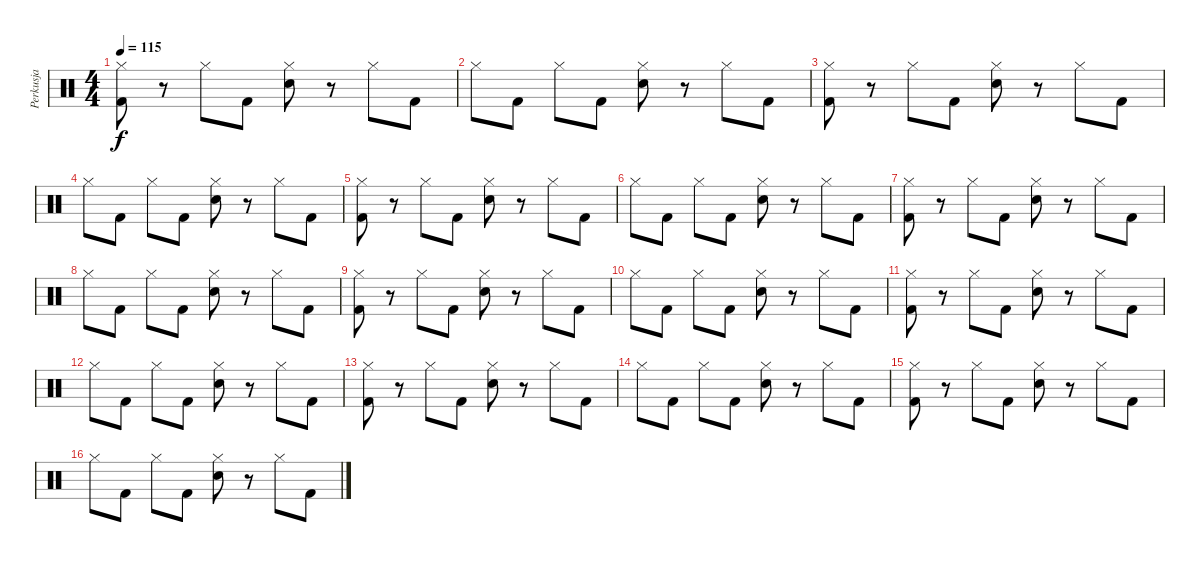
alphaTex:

\track ("Perkusja" "Perkusja") {instrument percussion}
\staff {score}
\articulation defaults
\ts (4 4)
\tempo 115
\clef neutral
\ks c
("Hi-Hat (closed)" "Kick (hit) 2").8{dy f} r.8 "Hi-Hat (closed)".8 "Kick (hit) 2".8 ("Hi-Hat (closed)" "Electric Snare (hit)").8 r.8 "Hi-Hat (closed)".8 "Kick (hit) 2".8 |
"Hi-Hat (closed)".8 "Kick (hit) 2".8 "Hi-Hat (closed)".8 "Kick (hit) 2".8 ("Hi-Hat (closed)" "Electric Snare (hit)").8 r.8 "Hi-Hat (closed)".8 "Kick (hit) 2".8 |
("Hi-Hat (closed)" "Kick (hit) 2").8 r.8 "Hi-Hat (closed)".8 "Kick (hit) 2".8 ("Hi-Hat (closed)" "Electric Snare (hit)").8 r.8 "Hi-Hat (closed)".8 "Kick (hit) 2".8 |
"Hi-Hat (closed)".8 "Kick (hit) 2".8 "Hi-Hat (closed)".8 "Kick (hit) 2".8 ("Hi-Hat (closed)" "Electric Snare (hit)").8 r.8 "Hi-Hat (closed)".8 "Kick (hit) 2".8 |
("Hi-Hat (closed)" "Kick (hit) 2").8 r.8 "Hi-Hat (closed)".8 "Kick (hit) 2".8 ("Hi-Hat (closed)" "Electric Snare (hit)").8 r.8 "Hi-Hat (closed)".8 "Kick (hit) 2".8 |
"Hi-Hat (closed)".8 "Kick (hit) 2".8 "Hi-Hat (closed)".8 "Kick (hit) 2".8 ("Hi-Hat (closed)" "Electric Snare (hit)").8 r.8 "Hi-Hat (closed)".8 "Kick (hit) 2".8 |
("Hi-Hat (closed)" "Kick (hit) 2").8 r.8 "Hi-Hat (closed)".8 "Kick (hit) 2".8 ("Hi-Hat (closed)" "Electric Snare (hit)").8 r.8 "Hi-Hat (closed)".8 "Kick (hit) 2".8 |
"Hi-Hat (closed)".8 "Kick (hit) 2".8 "Hi-Hat (closed)".8 "Kick (hit) 2".8 ("Hi-Hat (closed)" "Electric Snare (hit)").8 r.8 "Hi-Hat (closed)".8 "Kick (hit) 2".8 |
("Hi-Hat (closed)" "Kick (hit) 2").8 r.8 "Hi-Hat (closed)".8 "Kick (hit) 2".8 ("Hi-Hat (closed)" "Electric Snare (hit)").8 r.8 "Hi-Hat (closed)".8 "Kick (hit) 2".8 |
"Hi-Hat (closed)".8 "Kick (hit) 2".8 "Hi-Hat (closed)".8 "Kick (hit) 2".8 ("Hi-Hat (closed)" "Electric Snare (hit)").8 r.8 "Hi-Hat (closed)".8 "Kick (hit) 2".8 |
("Hi-Hat (closed)" "Kick (hit) 2").8 r.8 "Hi-Hat (closed)".8 "Kick (hit) 2".8 ("Hi-Hat (closed)" "Electric Snare (hit)").8 r.8 "Hi-Hat (closed)".8 "Kick (hit) 2".8 |
"Hi-Hat (closed)".8 "Kick (hit) 2".8 "Hi-Hat (closed)".8 "Kick (hit) 2".8 ("Hi-Hat (closed)" "Electric Snare (hit)").8 r.8 "Hi-Hat (closed)".8 "Kick (hit) 2".8 |
("Hi-Hat (closed)" "Kick (hit) 2").8 r.8 "Hi-Hat (closed)".8 "Kick (hit) 2".8 ("Hi-Hat (closed)" "Electric Snare (hit)").8 r.8 "Hi-Hat (closed)".8 "Kick (hit) 2".8 |
"Hi-Hat (closed)".8 "Kick (hit) 2".8 "Hi-Hat (closed)".8 "Kick (hit) 2".8 ("Hi-Hat (closed)" "Electric Snare (hit)").8 r.8 "Hi-Hat (closed)".8 "Kick (hit) 2".8 |
("Hi-Hat (closed)" "Kick (hit) 2").8 r.8 "Hi-Hat (closed)".8 "Kick (hit) 2".8 ("Hi-Hat (closed)" "Electric Snare (hit)").8 r.8 "Hi-Hat (closed)".8 "Kick (hit) 2".8 |
"Hi-Hat (closed)".8 "Kick (hit) 2".8 "Hi-Hat (closed)".8 "Kick (hit) 2".8 ("Hi-Hat (closed)" "Electric Snare (hit)").8 r.8 "Hi-Hat (closed)".8 "Kick (hit) 2".8
